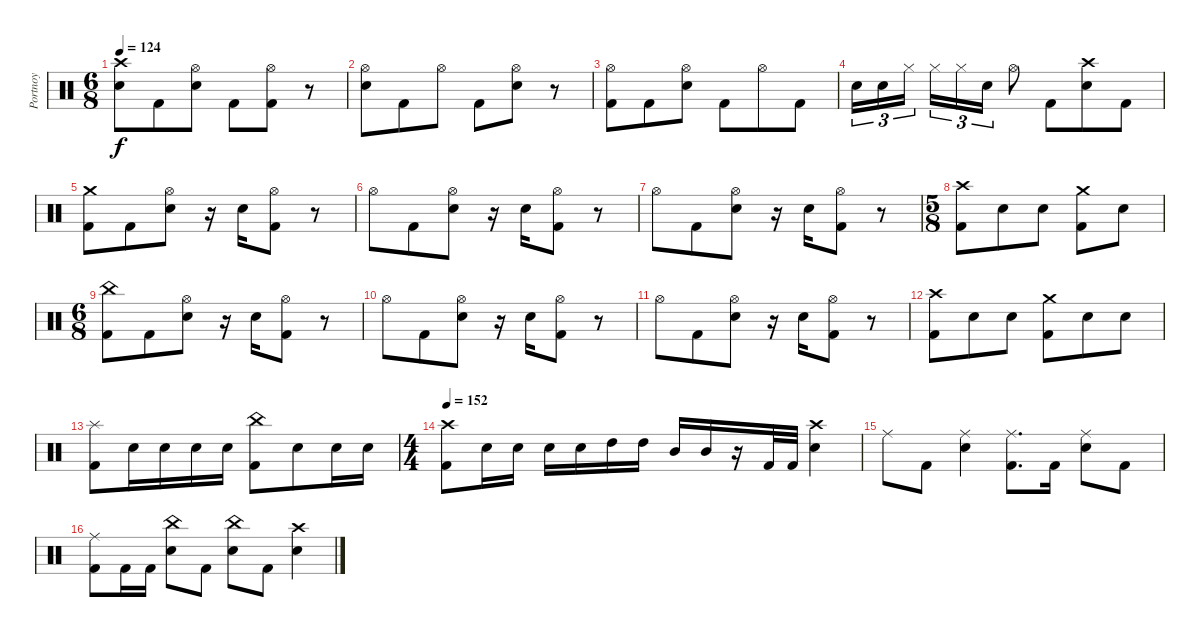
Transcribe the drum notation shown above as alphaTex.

\track ("Portnoy" "Portnoy") {instrument percussion}
\staff {score}
\articulation defaults
\ts (6 8)
\tempo 124
\clef neutral
\ks c
("Crash high (hit)" "Electric Snare (hit)").8{dy f} "Kick (hit) 2".8 ("Hi-Hat (open)" "Electric Snare (hit)").8 "Kick (hit) 2".8 ("Hi-Hat (open)" "Kick (hit) 2").8 r.8 |
("Hi-Hat (open)" "Electric Snare (hit)").8 "Kick (hit) 2".8 "Hi-Hat (open)".8 "Kick (hit) 2".8 ("Hi-Hat (open)" "Electric Snare (hit)").8 r.8 |
("Hi-Hat (open)" "Kick (hit) 2").8 "Kick (hit) 2".8 ("Hi-Hat (open)" "Electric Snare (hit)").8 "Kick (hit) 2".8 "Hi-Hat (open)".8 "Kick (hit) 2".8 |
"Electric Snare (hit)".16{tu (3 2)} "Electric Snare (hit)".16{tu (3 2)} "Hi-Hat (closed)".16{tu (3 2) beam splitsecondary} "Hi-Hat (closed)".16{tu (3 2)} "Hi-Hat (closed)".16{tu (3 2)} "Electric Snare (hit)".16{tu (3 2)} "Hi-Hat (open)".8 "Kick (hit) 2".8 ("Crash high (hit)" "Electric Snare (hit)").8 "Kick (hit) 2".8 |
("Crash medium (hit)" "Kick (hit) 2").8 "Kick (hit) 2".8 ("Hi-Hat (open)" "Electric Snare (hit)").8 r.16 "Electric Snare (hit)".16 ("Hi-Hat (open)" "Kick (hit) 2").8 r.8 |
"Hi-Hat (open)".8 "Kick (hit) 2".8 ("Hi-Hat (open)" "Electric Snare (hit)").8 r.16 "Electric Snare (hit)".16 ("Hi-Hat (open)" "Kick (hit) 2").8 r.8 |
"Hi-Hat (open)".8 "Kick (hit) 2".8 ("Hi-Hat (open)" "Electric Snare (hit)").8 r.16 "Electric Snare (hit)".16 ("Hi-Hat (open)" "Kick (hit) 2").8 r.8 |
\ts (5 8)
("Crash high (hit)" "Kick (hit) 2").8 "Electric Snare (hit)".8 "Electric Snare (hit)".8 ("Crash medium (hit)" "Kick (hit) 2").8 "Electric Snare (hit)".8 |
\ts (6 8)
("China (hit)" "Kick (hit) 2").8 "Kick (hit) 2".8 ("Hi-Hat (open)" "Electric Snare (hit)").8 r.16 "Electric Snare (hit)".16 ("Hi-Hat (open)" "Kick (hit) 2").8 r.8 |
"Hi-Hat (open)".8 "Kick (hit) 2".8 ("Hi-Hat (open)" "Electric Snare (hit)").8 r.16 "Electric Snare (hit)".16 ("Hi-Hat (open)" "Kick (hit) 2").8 r.8 |
"Hi-Hat (open)".8 "Kick (hit) 2".8 ("Hi-Hat (open)" "Electric Snare (hit)").8 r.16 "Electric Snare (hit)".16 ("Hi-Hat (open)" "Kick (hit) 2").8 r.8 |
("Crash high (hit)" "Kick (hit) 2").8 "Electric Snare (hit)".8 "Electric Snare (hit)".8 ("Crash medium (hit)" "Kick (hit) 2").8 "Electric Snare (hit)".8 "Electric Snare (hit)".8 |
("Splash (hit)" "Kick (hit) 2").8 "Electric Snare (hit)".16 "Electric Snare (hit)".16 "Electric Snare (hit)".16 "Electric Snare (hit)".16 ("China (hit)" "Kick (hit) 2").8 "Electric Snare (hit)".8 "Electric Snare (hit)".16 "Electric Snare (hit)".16 |
\ts (4 4)
\tempo 152
("Crash high (hit)" "Kick (hit) 2").8 "Electric Snare (hit)".16 "Electric Snare (hit)".16 "Electric Snare (hit)".16 "Electric Snare (hit)".16 "High Tom (hit)".16 "High Tom (hit)".16 "Mid Tom (hit)".16 "Mid Tom (hit)".16 r.16 "Kick (hit) 2".32 "Kick (hit) 2".32 ("Crash high (hit)" "Electric Snare (hit)").4 |
"Ride (middle)".8 "Kick (hit) 2".8 ("Ride (middle)" "Electric Snare (hit)").4 ("Ride (middle)" "Kick (hit) 2").8{d} "Kick (hit) 2".16 ("Ride (middle)" "Electric Snare (hit)").8 "Kick (hit) 2".8 |
("Ride (middle)" "Kick (hit) 2").8 "Kick (hit) 2".16 "Kick (hit) 2".16 ("China (hit)" "Electric Snare (hit)").8 "Kick (hit) 2".8 ("China (hit)" "Electric Snare (hit)").8 "Kick (hit) 2".8 ("Crash high (hit)" "Electric Snare (hit)").4
